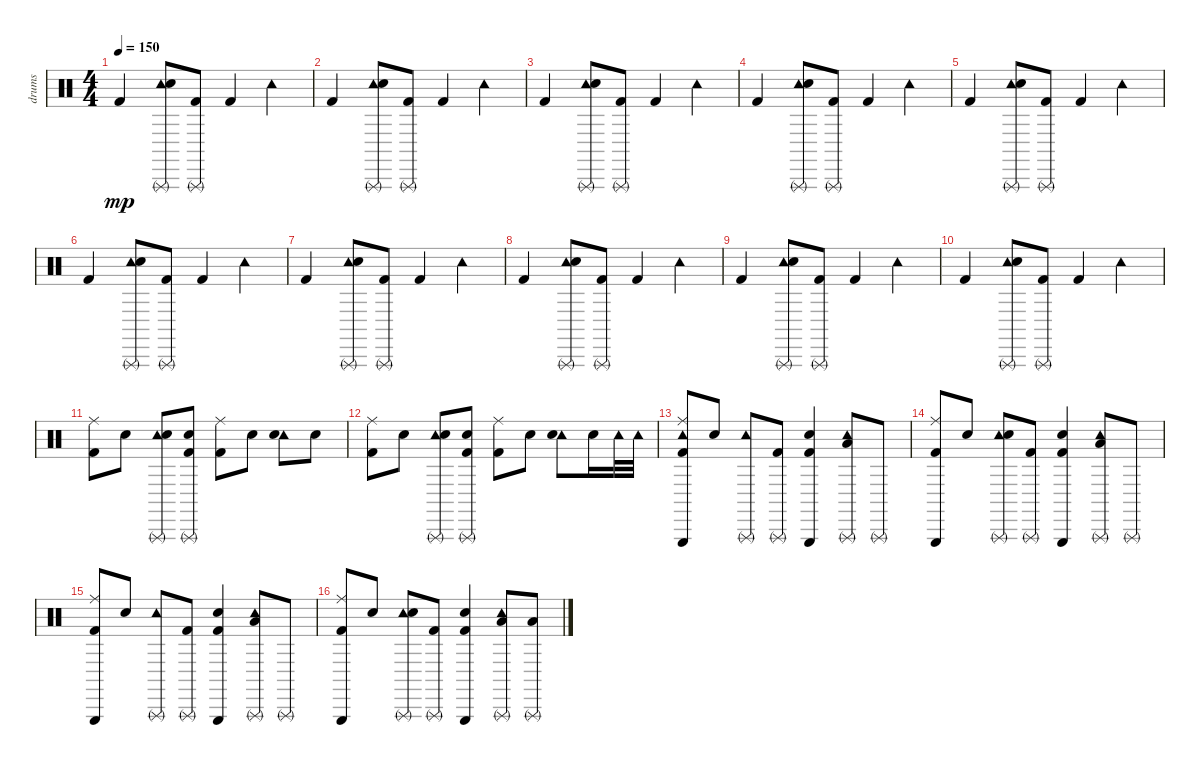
\track ("drums" "drums") {instrument percussion}
\staff {score}
\articulation defaults
\ts (4 4)
\tempo 150
\clef neutral
\ks c "Kick (hit) 2".4{dy mp}
("Triangle (rnute)" "Tambourine (hit)" "Snare (hit) 2").8 ("Triangle (rnute)" "Kick (hit) 2").8 "Kick (hit) 2".4 "Tambourine (hit)".4 |
"Kick (hit) 2".4 ("Triangle (rnute)" "Tambourine (hit)" "Snare (hit) 2").8 ("Triangle (rnute)" "Kick (hit) 2").8 "Kick (hit) 2".4 "Tambourine (hit)".4 |
"Kick (hit) 2".4 ("Triangle (rnute)" "Tambourine (hit)" "Snare (hit) 2").8 ("Triangle (rnute)" "Kick (hit) 2").8 "Kick (hit) 2".4 "Tambourine (hit)".4 |
"Kick (hit) 2".4 ("Triangle (rnute)" "Tambourine (hit)" "Snare (hit) 2").8 ("Triangle (rnute)" "Kick (hit) 2").8 "Kick (hit) 2".4 "Tambourine (hit)".4 |
"Kick (hit) 2".4 ("Triangle (rnute)" "Tambourine (hit)" "Snare (hit) 2").8 ("Triangle (rnute)" "Kick (hit) 2").8 "Kick (hit) 2".4 "Tambourine (hit)".4 |
"Kick (hit) 2".4 ("Triangle (rnute)" "Tambourine (hit)" "Snare (hit) 2").8 ("Triangle (rnute)" "Kick (hit) 2").8 "Kick (hit) 2".4 "Tambourine (hit)".4 |
"Kick (hit) 2".4 ("Triangle (rnute)" "Tambourine (hit)" "Snare (hit) 2").8 ("Triangle (rnute)" "Kick (hit) 2").8 "Kick (hit) 2".4 "Tambourine (hit)".4 |
"Kick (hit) 2".4 ("Triangle (rnute)" "Tambourine (hit)" "Snare (hit) 2").8 ("Triangle (rnute)" "Kick (hit) 2").8 "Kick (hit) 2".4 "Tambourine (hit)".4 |
"Kick (hit) 2".4 ("Triangle (rnute)" "Tambourine (hit)" "Snare (hit) 2").8 ("Triangle (rnute)" "Kick (hit) 2").8 "Kick (hit) 2".4 "Tambourine (hit)".4 |
"Kick (hit) 2".4 ("Triangle (rnute)" "Tambourine (hit)" "Snare (hit) 2").8 ("Triangle (rnute)" "Kick (hit) 2").8 "Kick (hit) 2".4 "Tambourine (hit)".4 |
("Ride (middle)" "Kick (hit) 2").8 "Snare (hit) 2".8 ("Triangle (rnute)" "Tambourine (hit)" "Snare (hit) 2").8 ("Triangle (rnute)" "Kick (hit) 2" "Snare (hit) 2").8 ("Ride (middle)" "Kick (hit) 2").8 "Snare (hit) 2".8 ("Tambourine (hit)" "Snare (hit) 2").8 "Snare (hit) 2".8 |
("Ride (middle)" "Kick (hit) 2").8 "Snare (hit) 2".8 ("Triangle (rnute)" "Tambourine (hit)" "Snare (hit) 2").8 ("Triangle (rnute)" "Kick (hit) 2" "Snare (hit) 2").8 ("Ride (middle)" "Kick (hit) 2").8 "Snare (hit) 2".8 ("Tambourine (hit)" "Snare (hit) 2").8 "Snare (hit) 2".16 "Tambourine (hit)".32 "Tambourine (hit)".32 |
("Triangle (hit)" "Tambourine (hit)" "Ride (middle)" "Kick (hit) 2").8 "Snare (hit) 2".8 ("Triangle (rnute)" "Tambourine (hit)").8 ("Triangle (rnute)" "Kick (hit) 2").8 ("Triangle (hit)" "Kick (hit) 2" "Snare (hit) 2").4 ("Tambourine (hit)" "Low Tom (hit)" "Triangle (rnute)").8 "Triangle (rnute)".8 |
("Triangle (hit)" "Ride (middle)" "Kick (hit) 2").8 "Snare (hit) 2".8 ("Triangle (rnute)" "Tambourine (hit)" "Snare (hit) 2").8 ("Triangle (rnute)" "Kick (hit) 2").8 ("Triangle (hit)" "Kick (hit) 2" "Snare (hit) 2").4 ("Tambourine (hit)" "Low Tom (hit)" "Triangle (rnute)").8 "Triangle (rnute)".8 |
("Triangle (hit)" "Ride (middle)" "Kick (hit) 2").8 "Snare (hit) 2".8 ("Triangle (rnute)" "Tambourine (hit)").8 ("Triangle (rnute)" "Kick (hit) 2").8 ("Triangle (hit)" "Kick (hit) 2" "Snare (hit) 2").4 ("Tambourine (hit)" "Low Tom (hit)" "Triangle (rnute)").8 "Triangle (rnute)".8 |
("Triangle (hit)" "Ride (middle)" "Kick (hit) 2").8 "Snare (hit) 2".8 ("Triangle (rnute)" "Tambourine (hit)" "Snare (hit) 2").8 ("Triangle (rnute)" "Kick (hit) 2").8 ("Triangle (hit)" "Kick (hit) 2" "Snare (hit) 2").4 ("Tambourine (hit)" "Triangle (rnute)" "Low Tom (hit)").8 ("Low Tom (hit)" "Triangle (rnute)").8
